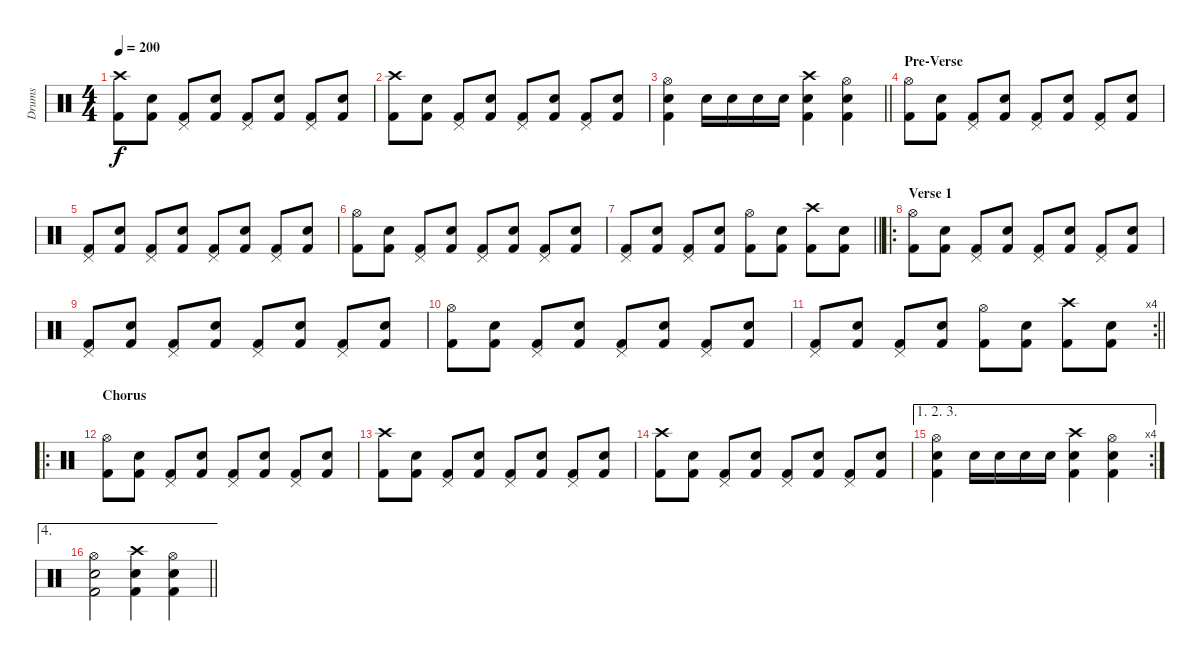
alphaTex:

\track ("Drums" "Drums") {instrument percussion}
\staff {score}
\articulation defaults
\ts (4 4)
\tempo 200
\clef neutral
\ks c
("Crash high (hit)" "Kick (hit) 2").8{dy f} ("Snare (hit) 2" "Kick (hit) 2").8 ("Pedal Hi-Hat (hit)" "Kick (hit) 2").8 ("Snare (hit) 2" "Kick (hit) 2").8 ("Pedal Hi-Hat (hit)" "Kick (hit) 2").8 ("Snare (hit) 2" "Kick (hit) 2").8 ("Pedal Hi-Hat (hit)" "Kick (hit) 2").8 ("Snare (hit) 2" "Kick (hit) 2").8 |
("Crash high (hit)" "Kick (hit) 2").8 ("Snare (hit) 2" "Kick (hit) 2").8 ("Pedal Hi-Hat (hit)" "Kick (hit) 2").8 ("Snare (hit) 2" "Kick (hit) 2").8 ("Pedal Hi-Hat (hit)" "Kick (hit) 2").8 ("Snare (hit) 2" "Kick (hit) 2").8 ("Pedal Hi-Hat (hit)" "Kick (hit) 2").8 ("Snare (hit) 2" "Kick (hit) 2").8 |
\barLineRight lightlight
("Hi-Hat (open)" "Snare (hit) 2" "Kick (hit) 2").4 "Snare (hit) 2".16 "Snare (hit) 2".16 "Snare (hit) 2".16 "Snare (hit) 2".16 ("Crash high (hit)" "Snare (hit) 2" "Kick (hit) 2").4 ("Hi-Hat (open)" "Snare (hit) 2" "Kick (hit) 2").4 |
\section ("" "Pre-Verse")
("Hi-Hat (open)" "Kick (hit) 2").8 ("Snare (hit) 2" "Kick (hit) 2").8 ("Pedal Hi-Hat (hit)" "Kick (hit) 2").8 ("Snare (hit) 2" "Kick (hit) 2").8 ("Pedal Hi-Hat (hit)" "Kick (hit) 2").8 ("Snare (hit) 2" "Kick (hit) 2").8 ("Pedal Hi-Hat (hit)" "Kick (hit) 2").8 ("Snare (hit) 2" "Kick (hit) 2").8 |
("Pedal Hi-Hat (hit)" "Kick (hit) 2").8 ("Snare (hit) 2" "Kick (hit) 2").8 ("Pedal Hi-Hat (hit)" "Kick (hit) 2").8 ("Snare (hit) 2" "Kick (hit) 2").8 ("Pedal Hi-Hat (hit)" "Kick (hit) 2").8 ("Snare (hit) 2" "Kick (hit) 2").8 ("Pedal Hi-Hat (hit)" "Kick (hit) 2").8 ("Snare (hit) 2" "Kick (hit) 2").8 |
("Hi-Hat (open)" "Kick (hit) 2").8 ("Snare (hit) 2" "Kick (hit) 2").8 ("Pedal Hi-Hat (hit)" "Kick (hit) 2").8 ("Snare (hit) 2" "Kick (hit) 2").8 ("Pedal Hi-Hat (hit)" "Kick (hit) 2").8 ("Snare (hit) 2" "Kick (hit) 2").8 ("Pedal Hi-Hat (hit)" "Kick (hit) 2").8 ("Snare (hit) 2" "Kick (hit) 2").8 |
\barLineRight lightlight
("Pedal Hi-Hat (hit)" "Kick (hit) 2").8 ("Snare (hit) 2" "Kick (hit) 2").8 ("Pedal Hi-Hat (hit)" "Kick (hit) 2").8 ("Snare (hit) 2" "Kick (hit) 2").8 ("Hi-Hat (open)" "Kick (hit) 2").8 ("Snare (hit) 2" "Kick (hit) 2").8 ("Crash high (hit)" "Kick (hit) 2").8 ("Snare (hit) 2" "Kick (hit) 2").8 |
\ro
\section ("" "Verse 1")
("Hi-Hat (open)" "Kick (hit) 2").8 ("Snare (hit) 2" "Kick (hit) 2").8 ("Pedal Hi-Hat (hit)" "Kick (hit) 2").8 ("Snare (hit) 2" "Kick (hit) 2").8 ("Pedal Hi-Hat (hit)" "Kick (hit) 2").8 ("Snare (hit) 2" "Kick (hit) 2").8 ("Pedal Hi-Hat (hit)" "Kick (hit) 2").8 ("Snare (hit) 2" "Kick (hit) 2").8 |
("Pedal Hi-Hat (hit)" "Kick (hit) 2").8 ("Snare (hit) 2" "Kick (hit) 2").8 ("Pedal Hi-Hat (hit)" "Kick (hit) 2").8 ("Snare (hit) 2" "Kick (hit) 2").8 ("Pedal Hi-Hat (hit)" "Kick (hit) 2").8 ("Snare (hit) 2" "Kick (hit) 2").8 ("Pedal Hi-Hat (hit)" "Kick (hit) 2").8 ("Snare (hit) 2" "Kick (hit) 2").8 |
("Hi-Hat (open)" "Kick (hit) 2").8 ("Snare (hit) 2" "Kick (hit) 2").8 ("Pedal Hi-Hat (hit)" "Kick (hit) 2").8 ("Snare (hit) 2" "Kick (hit) 2").8 ("Pedal Hi-Hat (hit)" "Kick (hit) 2").8 ("Snare (hit) 2" "Kick (hit) 2").8 ("Pedal Hi-Hat (hit)" "Kick (hit) 2").8 ("Snare (hit) 2" "Kick (hit) 2").8 |
\rc 4
\barLineRight lightlight
("Pedal Hi-Hat (hit)" "Kick (hit) 2").8 ("Snare (hit) 2" "Kick (hit) 2").8 ("Pedal Hi-Hat (hit)" "Kick (hit) 2").8 ("Snare (hit) 2" "Kick (hit) 2").8 ("Hi-Hat (open)" "Kick (hit) 2").8 ("Snare (hit) 2" "Kick (hit) 2").8 ("Crash high (hit)" "Kick (hit) 2").8 ("Snare (hit) 2" "Kick (hit) 2").8 |
\ro
\section ("" "Chorus")
("Hi-Hat (open)" "Kick (hit) 2").8 ("Snare (hit) 2" "Kick (hit) 2").8 ("Pedal Hi-Hat (hit)" "Kick (hit) 2").8 ("Snare (hit) 2" "Kick (hit) 2").8 ("Pedal Hi-Hat (hit)" "Kick (hit) 2").8 ("Snare (hit) 2" "Kick (hit) 2").8 ("Pedal Hi-Hat (hit)" "Kick (hit) 2").8 ("Snare (hit) 2" "Kick (hit) 2").8 |
("Crash high (hit)" "Kick (hit) 2").8 ("Snare (hit) 2" "Kick (hit) 2").8 ("Pedal Hi-Hat (hit)" "Kick (hit) 2").8 ("Snare (hit) 2" "Kick (hit) 2").8 ("Pedal Hi-Hat (hit)" "Kick (hit) 2").8 ("Snare (hit) 2" "Kick (hit) 2").8 ("Pedal Hi-Hat (hit)" "Kick (hit) 2").8 ("Snare (hit) 2" "Kick (hit) 2").8 |
("Crash high (hit)" "Kick (hit) 2").8 ("Snare (hit) 2" "Kick (hit) 2").8 ("Pedal Hi-Hat (hit)" "Kick (hit) 2").8 ("Snare (hit) 2" "Kick (hit) 2").8 ("Pedal Hi-Hat (hit)" "Kick (hit) 2").8 ("Snare (hit) 2" "Kick (hit) 2").8 ("Pedal Hi-Hat (hit)" "Kick (hit) 2").8 ("Snare (hit) 2" "Kick (hit) 2").8 |
\ae (1 2 3)
\rc 4
("Hi-Hat (open)" "Snare (hit) 2" "Kick (hit) 2").4 "Snare (hit) 2".16 "Snare (hit) 2".16 "Snare (hit) 2".16 "Snare (hit) 2".16 ("Crash high (hit)" "Snare (hit) 2" "Kick (hit) 2").4 ("Hi-Hat (open)" "Snare (hit) 2" "Kick (hit) 2").4 |
\ae 4
\barLineRight lightlight
("Hi-Hat (open)" "Snare (hit) 2" "Kick (hit) 2").2 ("Crash high (hit)" "Snare (hit) 2" "Kick (hit) 2").4 ("Hi-Hat (open)" "Snare (hit) 2" "Kick (hit) 2").4
